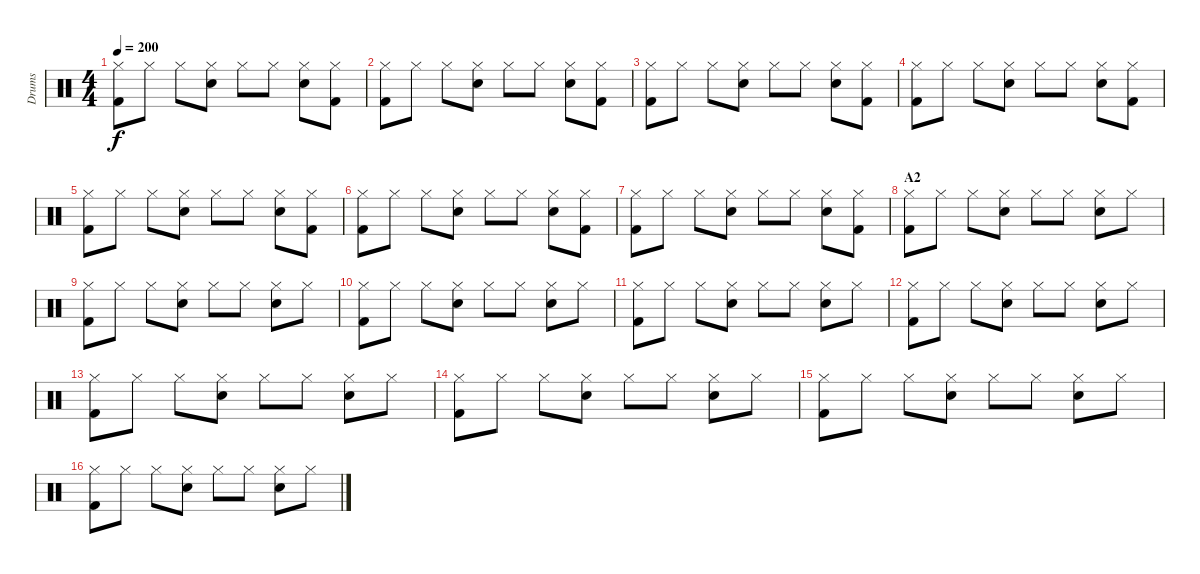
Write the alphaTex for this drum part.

\track ("Drums" "Drums") {instrument percussion}
\staff {score}
\articulation defaults
\ts (4 4)
\tempo 200
\clef neutral
\ks c
("Hi-Hat (closed)" "Kick (hit) 2").8{dy f} "Hi-Hat (closed)".8 "Hi-Hat (closed)".8 ("Hi-Hat (closed)" "Electric Snare (hit)").8 "Hi-Hat (closed)".8 "Hi-Hat (closed)".8 ("Hi-Hat (closed)" "Electric Snare (hit)").8 ("Hi-Hat (closed)" "Kick (hit) 2").8 |
("Hi-Hat (closed)" "Kick (hit) 2").8 "Hi-Hat (closed)".8 "Hi-Hat (closed)".8 ("Hi-Hat (closed)" "Electric Snare (hit)").8 "Hi-Hat (closed)".8 "Hi-Hat (closed)".8 ("Hi-Hat (closed)" "Electric Snare (hit)").8 ("Hi-Hat (closed)" "Kick (hit) 2").8 |
("Hi-Hat (closed)" "Kick (hit) 2").8 "Hi-Hat (closed)".8 "Hi-Hat (closed)".8 ("Hi-Hat (closed)" "Electric Snare (hit)").8 "Hi-Hat (closed)".8 "Hi-Hat (closed)".8 ("Hi-Hat (closed)" "Electric Snare (hit)").8 ("Hi-Hat (closed)" "Kick (hit) 2").8 |
("Hi-Hat (closed)" "Kick (hit) 2").8 "Hi-Hat (closed)".8 "Hi-Hat (closed)".8 ("Hi-Hat (closed)" "Electric Snare (hit)").8 "Hi-Hat (closed)".8 "Hi-Hat (closed)".8 ("Hi-Hat (closed)" "Electric Snare (hit)").8 ("Hi-Hat (closed)" "Kick (hit) 2").8 |
("Hi-Hat (closed)" "Kick (hit) 2").8 "Hi-Hat (closed)".8 "Hi-Hat (closed)".8 ("Hi-Hat (closed)" "Electric Snare (hit)").8 "Hi-Hat (closed)".8 "Hi-Hat (closed)".8 ("Hi-Hat (closed)" "Electric Snare (hit)").8 ("Hi-Hat (closed)" "Kick (hit) 2").8 |
("Hi-Hat (closed)" "Kick (hit) 2").8 "Hi-Hat (closed)".8 "Hi-Hat (closed)".8 ("Hi-Hat (closed)" "Electric Snare (hit)").8 "Hi-Hat (closed)".8 "Hi-Hat (closed)".8 ("Hi-Hat (closed)" "Electric Snare (hit)").8 ("Hi-Hat (closed)" "Kick (hit) 2").8 |
("Hi-Hat (closed)" "Kick (hit) 2").8 "Hi-Hat (closed)".8 "Hi-Hat (closed)".8 ("Hi-Hat (closed)" "Electric Snare (hit)").8 "Hi-Hat (closed)".8 "Hi-Hat (closed)".8 ("Hi-Hat (closed)" "Electric Snare (hit)").8 ("Hi-Hat (closed)" "Kick (hit) 2").8 |
\section ("" "A2")
("Hi-Hat (closed)" "Kick (hit) 2").8 "Hi-Hat (closed)".8 "Hi-Hat (closed)".8 ("Hi-Hat (closed)" "Electric Snare (hit)").8 "Hi-Hat (closed)".8 "Hi-Hat (closed)".8 ("Hi-Hat (closed)" "Electric Snare (hit)").8 "Hi-Hat (closed)".8 |
("Hi-Hat (closed)" "Kick (hit) 2").8 "Hi-Hat (closed)".8 "Hi-Hat (closed)".8 ("Hi-Hat (closed)" "Electric Snare (hit)").8 "Hi-Hat (closed)".8 "Hi-Hat (closed)".8 ("Hi-Hat (closed)" "Electric Snare (hit)").8 "Hi-Hat (closed)".8 |
("Hi-Hat (closed)" "Kick (hit) 2").8 "Hi-Hat (closed)".8 "Hi-Hat (closed)".8 ("Hi-Hat (closed)" "Electric Snare (hit)").8 "Hi-Hat (closed)".8 "Hi-Hat (closed)".8 ("Hi-Hat (closed)" "Electric Snare (hit)").8 "Hi-Hat (closed)".8 |
("Hi-Hat (closed)" "Kick (hit) 2").8 "Hi-Hat (closed)".8 "Hi-Hat (closed)".8 ("Hi-Hat (closed)" "Electric Snare (hit)").8 "Hi-Hat (closed)".8 "Hi-Hat (closed)".8 ("Hi-Hat (closed)" "Electric Snare (hit)").8 "Hi-Hat (closed)".8 |
("Hi-Hat (closed)" "Kick (hit) 2").8 "Hi-Hat (closed)".8 "Hi-Hat (closed)".8 ("Hi-Hat (closed)" "Electric Snare (hit)").8 "Hi-Hat (closed)".8 "Hi-Hat (closed)".8 ("Hi-Hat (closed)" "Electric Snare (hit)").8 "Hi-Hat (closed)".8 |
("Hi-Hat (closed)" "Kick (hit) 2").8 "Hi-Hat (closed)".8 "Hi-Hat (closed)".8 ("Hi-Hat (closed)" "Electric Snare (hit)").8 "Hi-Hat (closed)".8 "Hi-Hat (closed)".8 ("Hi-Hat (closed)" "Electric Snare (hit)").8 "Hi-Hat (closed)".8 |
("Hi-Hat (closed)" "Kick (hit) 2").8 "Hi-Hat (closed)".8 "Hi-Hat (closed)".8 ("Hi-Hat (closed)" "Electric Snare (hit)").8 "Hi-Hat (closed)".8 "Hi-Hat (closed)".8 ("Hi-Hat (closed)" "Electric Snare (hit)").8 "Hi-Hat (closed)".8 |
("Hi-Hat (closed)" "Kick (hit) 2").8 "Hi-Hat (closed)".8 "Hi-Hat (closed)".8 ("Hi-Hat (closed)" "Electric Snare (hit)").8 "Hi-Hat (closed)".8 "Hi-Hat (closed)".8 ("Hi-Hat (closed)" "Electric Snare (hit)").8 "Hi-Hat (closed)".8 |
("Hi-Hat (closed)" "Kick (hit) 2").8 "Hi-Hat (closed)".8 "Hi-Hat (closed)".8 ("Hi-Hat (closed)" "Electric Snare (hit)").8 "Hi-Hat (closed)".8 "Hi-Hat (closed)".8 ("Hi-Hat (closed)" "Electric Snare (hit)").8 "Hi-Hat (closed)".8
